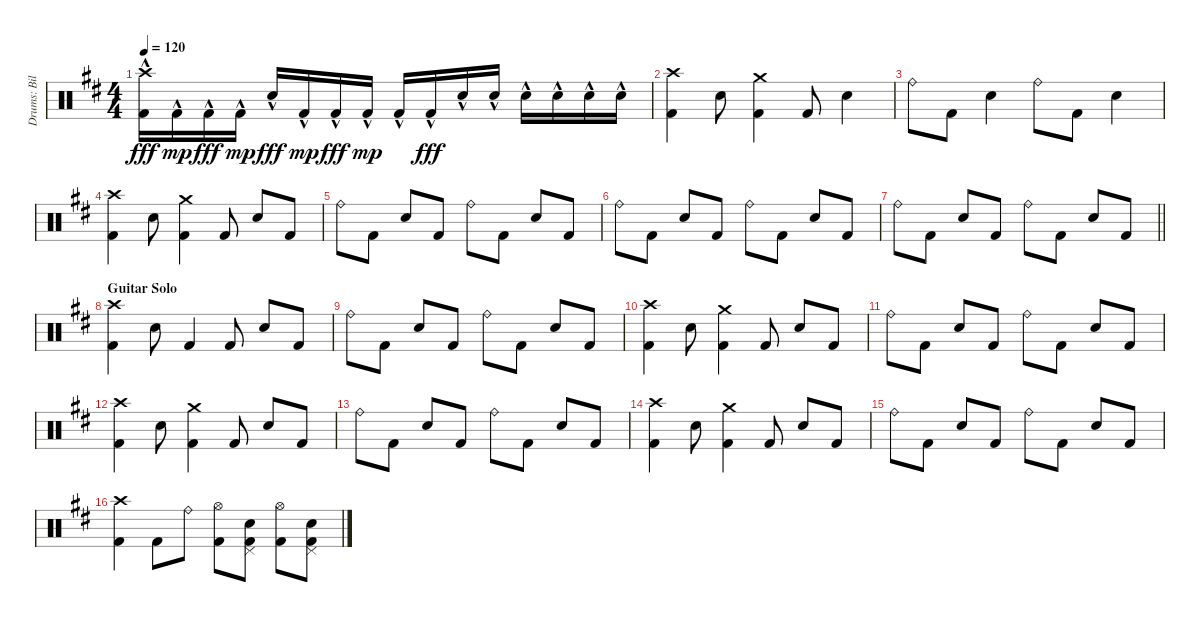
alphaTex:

\track ("Drums: Bill" "Drums: Bil") {instrument percussion}
\staff {score}
\articulation defaults
\ts (4 4)
\tempo 120
\clef neutral
\ks d
("Crash high (hit)"{hac} "Kick (hit) 2"{hac}).16{dy fff} "Kick (hit) 2"{hac}.16{dy mp} "Kick (hit) 2"{hac}.16{dy fff} "Kick (hit) 2"{hac}.16{dy mp} "Snare (hit) 2"{hac}.16{dy fff} "Kick (hit) 2"{hac}.16{dy mp} "Kick (hit) 2"{hac}.16{dy fff} "Kick (hit) 2"{hac}.16{dy mp} "Kick (hit) 2"{hac}.16 "Kick (hit) 2"{hac}.16{dy fff} "Snare (hit) 2"{hac}.16 "Snare (hit) 2"{hac}.16 "Snare (hit) 2"{hac}.16 "Snare (hit) 2"{hac}.16 "Snare (hit) 2"{hac}.16 "Snare (hit) 2"{hac}.16 |
("Crash high (hit)" "Kick (hit) 2").4 "Snare (hit) 2".8 ("Crash medium (hit)" "Kick (hit) 2").4 "Kick (hit) 2".8 "Snare (hit) 2".4 |
"Ride (bell)".8 "Kick (hit) 2".8 "Snare (hit) 2".4 "Ride (bell)".8 "Kick (hit) 2".8 "Snare (hit) 2".4 |
("Crash high (hit)" "Kick (hit) 2").4 "Snare (hit) 2".8 ("Crash medium (hit)" "Kick (hit) 2").4 "Kick (hit) 2".8 "Snare (hit) 2".8 "Kick (hit) 2".8 |
"Ride (bell)".8 "Kick (hit) 2".8 "Snare (hit) 2".8 "Kick (hit) 2".8 "Ride (bell)".8 "Kick (hit) 2".8 "Snare (hit) 2".8 "Kick (hit) 2".8 |
"Ride (bell)".8 "Kick (hit) 2".8 "Snare (hit) 2".8 "Kick (hit) 2".8 "Ride (bell)".8 "Kick (hit) 2".8 "Snare (hit) 2".8 "Kick (hit) 2".8 |
\barLineRight lightlight "Ride (bell)".8 "Kick (hit) 2".8 "Snare (hit) 2".8 "Kick (hit) 2".8 "Ride (bell)".8 "Kick (hit) 2".8 "Snare (hit) 2".8 "Kick (hit) 2".8
|
\section ("" "Guitar Solo")
("Crash high (hit)" "Kick (hit) 2").4 "Snare (hit) 2".8 "Kick (hit) 2".4 "Kick (hit) 2".8 "Snare (hit) 2".8 "Kick (hit) 2".8 |
"Ride (bell)".8 "Kick (hit) 2".8 "Snare (hit) 2".8 "Kick (hit) 2".8 "Ride (bell)".8 "Kick (hit) 2".8 "Snare (hit) 2".8 "Kick (hit) 2".8 |
("Crash high (hit)" "Kick (hit) 2").4 "Snare (hit) 2".8 ("Crash medium (hit)" "Kick (hit) 2").4 "Kick (hit) 2".8 "Snare (hit) 2".8 "Kick (hit) 2".8 |
"Ride (bell)".8 "Kick (hit) 2".8 "Snare (hit) 2".8 "Kick (hit) 2".8 "Ride (bell)".8 "Kick (hit) 2".8 "Snare (hit) 2".8 "Kick (hit) 2".8 |
("Crash high (hit)" "Kick (hit) 2").4 "Snare (hit) 2".8 ("Crash medium (hit)" "Kick (hit) 2").4 "Kick (hit) 2".8 "Snare (hit) 2".8 "Kick (hit) 2".8 |
"Ride (bell)".8 "Kick (hit) 2".8 "Snare (hit) 2".8 "Kick (hit) 2".8 "Ride (bell)".8 "Kick (hit) 2".8 "Snare (hit) 2".8 "Kick (hit) 2".8 |
("Crash high (hit)" "Kick (hit) 2").4 "Snare (hit) 2".8 ("Crash medium (hit)" "Kick (hit) 2").4 "Kick (hit) 2".8 "Snare (hit) 2".8 "Kick (hit) 2".8 |
"Ride (bell)".8 "Kick (hit) 2".8 "Snare (hit) 2".8 "Kick (hit) 2".8 "Ride (bell)".8 "Kick (hit) 2".8 "Snare (hit) 2".8 "Kick (hit) 2".8 |
("Crash high (hit)" "Kick (hit) 2").4 "Kick (hit) 2".8 "Ride (bell)".8 ("Hi-Hat (open)" "Kick (hit) 2").8 ("Pedal Hi-Hat (hit)" "Snare (hit) 2" "Kick (hit) 2").8 ("Hi-Hat (open)" "Kick (hit) 2").8 ("Pedal Hi-Hat (hit)" "Snare (hit) 2" "Kick (hit) 2").8
